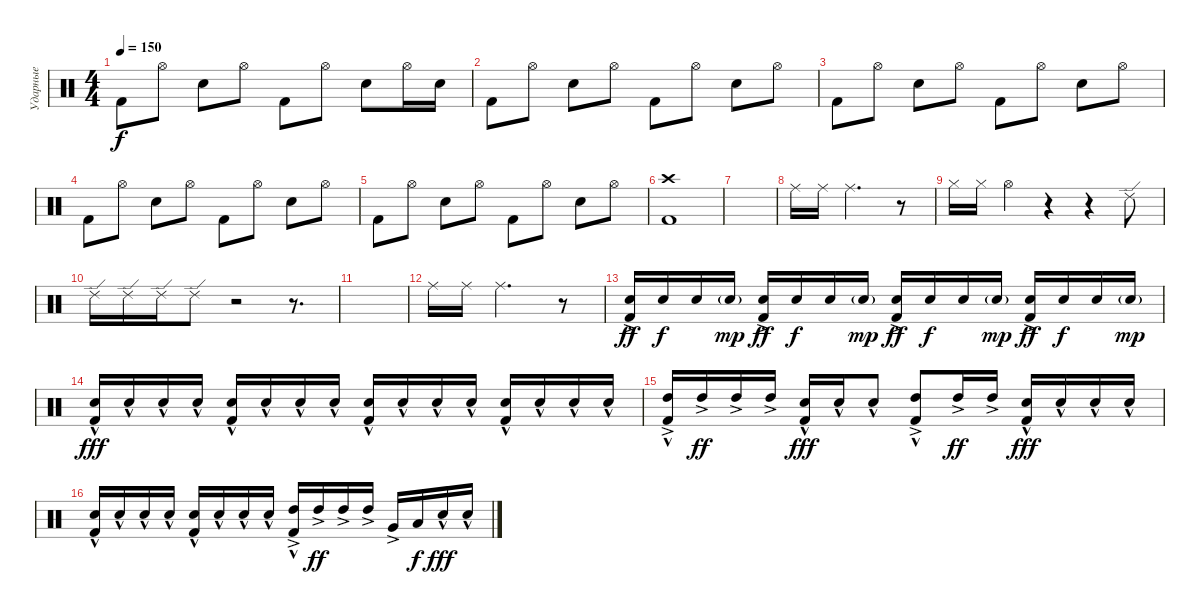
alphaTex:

\track ("Ударные" "Ударные") {instrument percussion}
\staff {score}
\articulation defaults
\ts (4 4)
\tempo 150
\clef neutral
\ks c "Kick (hit) 2".8{dy f} "Hi-Hat (open)".8 "Snare (hit) 2".8 "Hi-Hat (open)".8 "Kick (hit) 2".8 "Hi-Hat (open)".8 "Snare (hit) 2".8 "Hi-Hat (open)".16 "Snare (hit) 2".16
|
"Kick (hit) 2".8 "Hi-Hat (open)".8 "Snare (hit) 2".8 "Hi-Hat (open)".8 "Kick (hit) 2".8 "Hi-Hat (open)".8 "Snare (hit) 2".8 "Hi-Hat (open)".8 |
"Kick (hit) 2".8 "Hi-Hat (open)".8 "Snare (hit) 2".8 "Hi-Hat (open)".8 "Kick (hit) 2".8 "Hi-Hat (open)".8 "Snare (hit) 2".8 "Hi-Hat (open)".8 |
"Kick (hit) 2".8 "Hi-Hat (open)".8 "Snare (hit) 2".8 "Hi-Hat (open)".8 "Kick (hit) 2".8 "Hi-Hat (open)".8 "Snare (hit) 2".8 "Hi-Hat (open)".8 |
"Kick (hit) 2".8 "Hi-Hat (open)".8 "Snare (hit) 2".8 "Hi-Hat (open)".8 "Kick (hit) 2".8 "Hi-Hat (open)".8 "Snare (hit) 2".8 "Hi-Hat (open)".8 |
("Crash high (hit)" "Kick (hit) 2").1 |
|
"Ride (middle)".16 "Ride (middle)".16 "Ride (middle)".2{d} r.8 |
"Hi-Hat (closed)".16 "Hi-Hat (closed)".16 "Hi-Hat (open)".4 r.4 r.4 "Ride (edge) 2".8 |
"Ride (edge) 2".16 "Ride (edge) 2".16 "Ride (edge) 2".16 "Ride (edge) 2".8 r.2 r.8{d} |
|
"Ride (middle)".16 "Ride (middle)".16 "Ride (middle)".2{d} r.8 |
("Snare (hit) 2"{ac} "Kick (hit) 2"{ac}).16{dy ff} "Snare (hit) 2".16{dy f} "Snare (hit) 2".16 "Snare (hit) 2"{g}.16{dy mp} ("Snare (hit) 2"{ac} "Kick (hit) 2"{ac}).16{dy ff} "Snare (hit) 2".16{dy f} "Snare (hit) 2".16 "Snare (hit) 2"{g}.16{dy mp} ("Snare (hit) 2"{ac} "Kick (hit) 2"{ac}).16{dy ff} "Snare (hit) 2".16{dy f} "Snare (hit) 2".16 "Snare (hit) 2"{g}.16{dy mp} ("Snare (hit) 2"{ac} "Kick (hit) 2"{ac}).16{dy ff} "Snare (hit) 2".16{dy f} "Snare (hit) 2".16 "Snare (hit) 2"{g}.16{dy mp} |
("Snare (hit) 2"{hac} "Kick (hit) 2").16{dy fff} "Snare (hit) 2"{hac}.16 "Snare (hit) 2"{hac}.16 "Snare (hit) 2"{hac}.16 ("Snare (hit) 2"{hac} "Kick (hit) 2").16 "Snare (hit) 2"{hac}.16 "Snare (hit) 2"{hac}.16 "Snare (hit) 2"{hac}.16 ("Snare (hit) 2"{hac} "Kick (hit) 2").16 "Snare (hit) 2"{hac}.16 "Snare (hit) 2"{hac}.16 "Snare (hit) 2"{hac}.16 ("Snare (hit) 2"{hac} "Kick (hit) 2").16 "Snare (hit) 2"{hac}.16 "Snare (hit) 2"{hac}.16 "Snare (hit) 2"{hac}.16 |
("High Tom (hit)"{ac} "Kick (hit) 2"{hac}).16 "High Tom (hit)"{ac}.16{dy ff} "High Tom (hit)"{ac}.16 "High Tom (hit)"{ac}.16 ("Snare (hit) 2"{hac} "Kick (hit) 2"{hac}).16{dy fff} "Snare (hit) 2"{hac}.16 "Snare (hit) 2"{hac}.8 ("High Tom (hit)"{ac} "Kick (hit) 2"{hac}).8 "High Tom (hit)"{ac}.16{dy ff} "High Tom (hit)"{ac}.16 ("Snare (hit) 2"{hac} "Kick (hit) 2"{hac}).16{dy fff} "Snare (hit) 2"{hac}.16 "Snare (hit) 2"{hac}.16 "Snare (hit) 2"{hac}.16 |
("Snare (hit) 2"{hac} "Kick (hit) 2").16 "Snare (hit) 2"{hac}.16 "Snare (hit) 2"{hac}.16 "Snare (hit) 2"{hac}.16 ("Snare (hit) 2"{hac} "Kick (hit) 2").16 "Snare (hit) 2"{hac}.16 "Snare (hit) 2"{hac}.16 "Snare (hit) 2"{hac}.16 ("High Tom (hit)"{ac} "Kick (hit) 2"{hac}).16 "High Tom (hit)"{ac}.16{dy ff} "High Tom (hit)"{ac}.16 "High Tom (hit)"{ac}.16 "Very Low Tom (hit)"{ac}.16 "Low Floor Tom (hit)".16{dy f} "Snare (hit) 2"{hac}.16{dy fff} "Snare (hit) 2"{hac}.16
